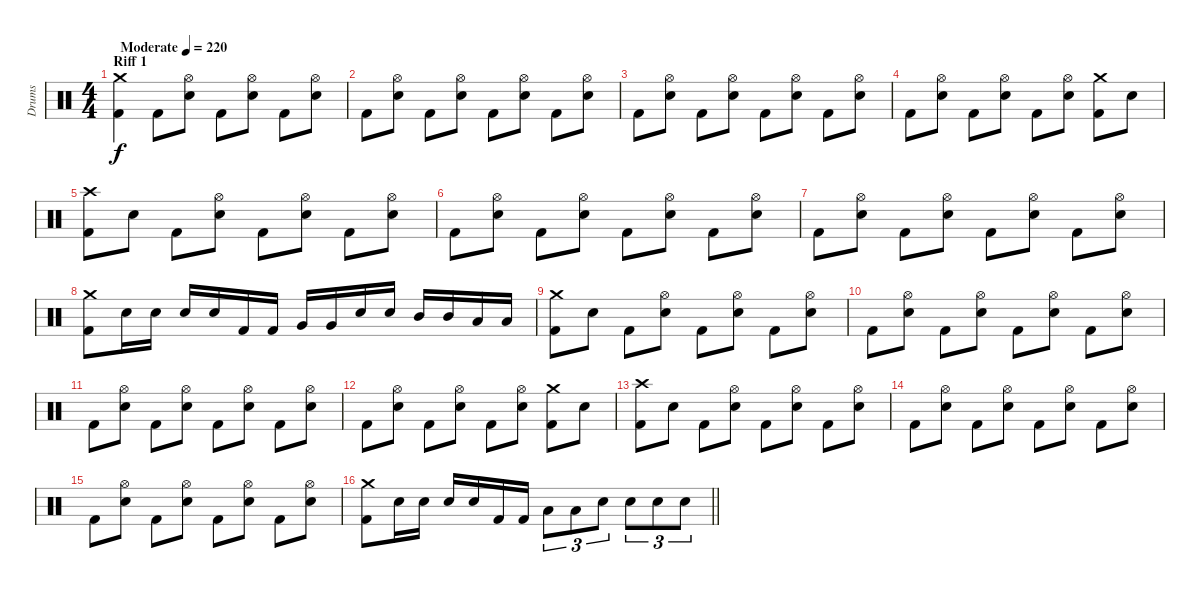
\track ("Drums" "Drums") {instrument percussion}
\staff {score}
\articulation defaults
\ts (4 4)
\section ("" "Riff 1")
\tempo (220 "Moderate")
\clef neutral
\ks c
("Crash medium (hit)" "Kick (hit) 2").4{dy f} "Kick (hit) 2".8 ("Electric Snare (hit)" "Hi-Hat (open)").8 "Kick (hit) 2".8 ("Electric Snare (hit)" "Hi-Hat (open)").8 "Kick (hit) 2".8 ("Electric Snare (hit)" "Hi-Hat (open)").8 |
"Kick (hit) 2".8 ("Electric Snare (hit)" "Hi-Hat (open)").8 "Kick (hit) 2".8 ("Electric Snare (hit)" "Hi-Hat (open)").8 "Kick (hit) 2".8 ("Electric Snare (hit)" "Hi-Hat (open)").8 "Kick (hit) 2".8 ("Electric Snare (hit)" "Hi-Hat (open)").8 |
"Kick (hit) 2".8 ("Electric Snare (hit)" "Hi-Hat (open)").8 "Kick (hit) 2".8 ("Electric Snare (hit)" "Hi-Hat (open)").8 "Kick (hit) 2".8 ("Electric Snare (hit)" "Hi-Hat (open)").8 "Kick (hit) 2".8 ("Electric Snare (hit)" "Hi-Hat (open)").8 |
"Kick (hit) 2".8 ("Electric Snare (hit)" "Hi-Hat (open)").8 "Kick (hit) 2".8 ("Electric Snare (hit)" "Hi-Hat (open)").8 "Kick (hit) 2".8 ("Electric Snare (hit)" "Hi-Hat (open)").8 ("Kick (hit) 2" "Crash medium (hit)").8 "Electric Snare (hit)".8 |
("Kick (hit) 2" "Crash high (hit)").8 "Electric Snare (hit)".8 "Kick (hit) 2".8 ("Electric Snare (hit)" "Hi-Hat (open)").8 "Kick (hit) 2".8 ("Electric Snare (hit)" "Hi-Hat (open)").8 "Kick (hit) 2".8 ("Electric Snare (hit)" "Hi-Hat (open)").8 |
"Kick (hit) 2".8 ("Electric Snare (hit)" "Hi-Hat (open)").8 "Kick (hit) 2".8 ("Electric Snare (hit)" "Hi-Hat (open)").8 "Kick (hit) 2".8 ("Electric Snare (hit)" "Hi-Hat (open)").8 "Kick (hit) 2".8 ("Electric Snare (hit)" "Hi-Hat (open)").8 |
"Kick (hit) 2".8 ("Electric Snare (hit)" "Hi-Hat (open)").8 "Kick (hit) 2".8 ("Electric Snare (hit)" "Hi-Hat (open)").8 "Kick (hit) 2".8 ("Electric Snare (hit)" "Hi-Hat (open)").8 "Kick (hit) 2".8 ("Electric Snare (hit)" "Hi-Hat (open)").8 |
("Kick (hit) 2" "Crash medium (hit)").8 "Electric Snare (hit)".16 "Electric Snare (hit)".16 "Electric Snare (hit)".16 "Electric Snare (hit)".16 "Kick (hit) 2".16 "Kick (hit) 2".16 "Very Low Tom (hit)".16 "Very Low Tom (hit)".16 "Electric Snare (hit)".16 "Electric Snare (hit)".16 "Mid Tom (hit)".16 "Mid Tom (hit)".16 "Low Tom (hit)".16 "Low Tom (hit)".16 |
("Crash medium (hit)" "Kick (hit) 2").8 "Electric Snare (hit)".8 "Kick (hit) 2".8 ("Electric Snare (hit)" "Hi-Hat (open)").8 "Kick (hit) 2".8 ("Electric Snare (hit)" "Hi-Hat (open)").8 "Kick (hit) 2".8 ("Electric Snare (hit)" "Hi-Hat (open)").8 |
"Kick (hit) 2".8 ("Electric Snare (hit)" "Hi-Hat (open)").8 "Kick (hit) 2".8 ("Electric Snare (hit)" "Hi-Hat (open)").8 "Kick (hit) 2".8 ("Electric Snare (hit)" "Hi-Hat (open)").8 "Kick (hit) 2".8 ("Electric Snare (hit)" "Hi-Hat (open)").8 |
"Kick (hit) 2".8 ("Electric Snare (hit)" "Hi-Hat (open)").8 "Kick (hit) 2".8 ("Electric Snare (hit)" "Hi-Hat (open)").8 "Kick (hit) 2".8 ("Electric Snare (hit)" "Hi-Hat (open)").8 "Kick (hit) 2".8 ("Electric Snare (hit)" "Hi-Hat (open)").8 |
"Kick (hit) 2".8 ("Electric Snare (hit)" "Hi-Hat (open)").8 "Kick (hit) 2".8 ("Electric Snare (hit)" "Hi-Hat (open)").8 "Kick (hit) 2".8 ("Electric Snare (hit)" "Hi-Hat (open)").8 ("Kick (hit) 2" "Crash medium (hit)").8 "Electric Snare (hit)".8 |
("Kick (hit) 2" "Crash high (hit)").8 "Electric Snare (hit)".8 "Kick (hit) 2".8 ("Electric Snare (hit)" "Hi-Hat (open)").8 "Kick (hit) 2".8 ("Electric Snare (hit)" "Hi-Hat (open)").8 "Kick (hit) 2".8 ("Electric Snare (hit)" "Hi-Hat (open)").8 |
"Kick (hit) 2".8 ("Electric Snare (hit)" "Hi-Hat (open)").8 "Kick (hit) 2".8 ("Electric Snare (hit)" "Hi-Hat (open)").8 "Kick (hit) 2".8 ("Electric Snare (hit)" "Hi-Hat (open)").8 "Kick (hit) 2".8 ("Electric Snare (hit)" "Hi-Hat (open)").8 |
"Kick (hit) 2".8 ("Electric Snare (hit)" "Hi-Hat (open)").8 "Kick (hit) 2".8 ("Electric Snare (hit)" "Hi-Hat (open)").8 "Kick (hit) 2".8 ("Electric Snare (hit)" "Hi-Hat (open)").8 "Kick (hit) 2".8 ("Electric Snare (hit)" "Hi-Hat (open)").8 |
\barLineRight lightlight
("Kick (hit) 2" "Crash medium (hit)").8 "Electric Snare (hit)".16 "Electric Snare (hit)".16 "Electric Snare (hit)".16 "Electric Snare (hit)".16 "Kick (hit) 2".16 "Kick (hit) 2".16 "Low Tom (hit)".8{tu (3 2)} "Low Tom (hit)".8{tu (3 2)} "Electric Snare (hit)".8{tu (3 2)} "Electric Snare (hit)".8{tu (3 2)} "Electric Snare (hit)".8{tu (3 2)} "Electric Snare (hit)".8{tu (3 2)}
